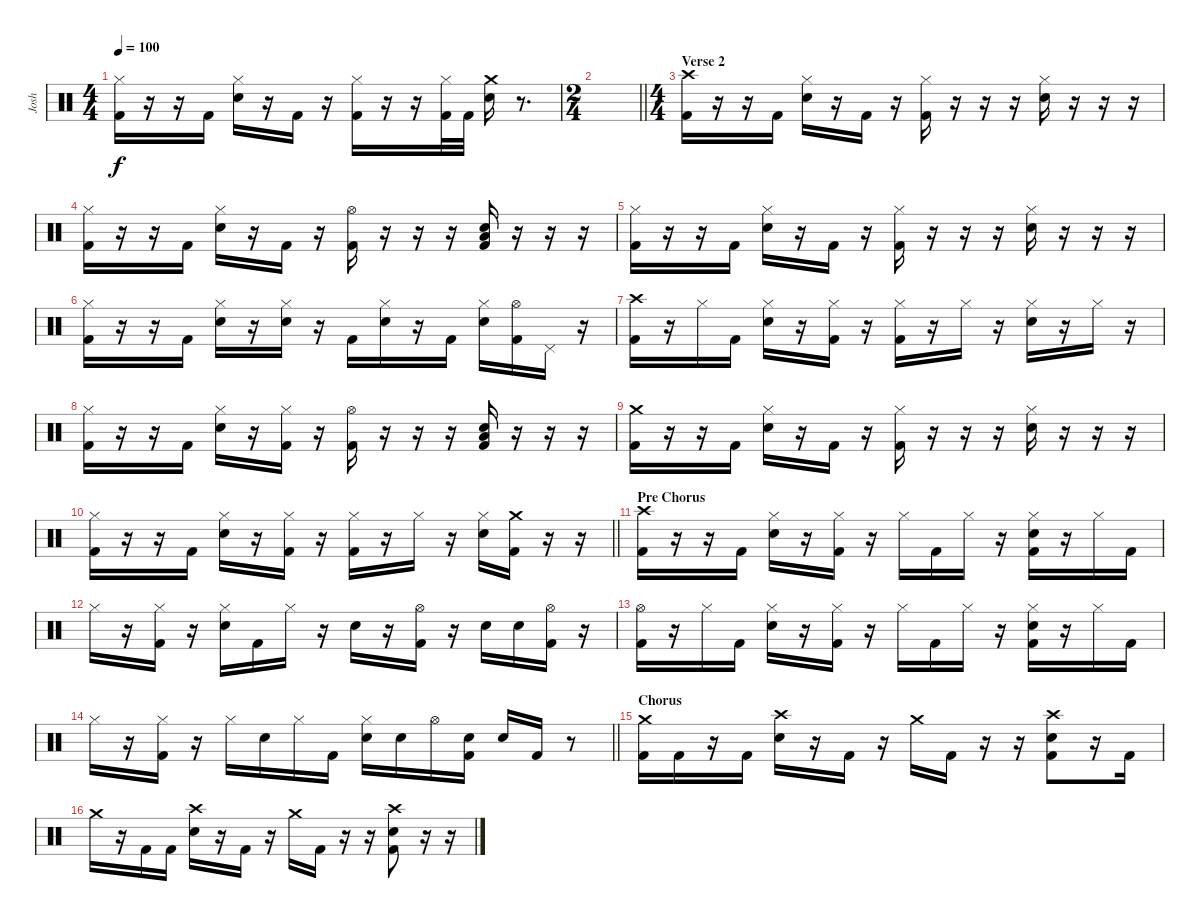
\track ("Josh" "Josh") {instrument percussion}
\staff {score}
\articulation defaults
\ts (4 4)
\tempo 100
\clef neutral
\ks c
("Hi-Hat (closed)" "Kick (hit) 2").16{dy f} r.16 r.16 "Kick (hit) 2".16 ("Hi-Hat (closed)" "Snare (hit) 2").16 r.16 "Kick (hit) 2".16 r.16 ("Hi-Hat (closed)" "Kick (hit) 2").16 r.16 r.16 ("Hi-Hat (closed)" "Kick (hit) 2").32 "Kick (hit) 2".32 ("Crash medium (hit)" "Snare (hit) 2").16 r.8{d} |
\ts (2 4)
\barLineRight lightlight
|
\ts (4 4)
\section ("" "Verse 2")
("Crash high (hit)" "Kick (hit) 2").16 r.16 r.16 "Kick (hit) 2".16 ("Hi-Hat (closed)" "Snare (hit) 2").16 r.16 "Kick (hit) 2".16 r.16 ("Hi-Hat (closed)" "Kick (hit) 2").16 r.16 r.16 r.16 ("Hi-Hat (closed)" "Snare (hit) 2").16 r.16 r.16 r.16 |
("Hi-Hat (closed)" "Kick (hit) 2").16 r.16 r.16 "Kick (hit) 2".16 ("Hi-Hat (closed)" "Snare (hit) 2").16 r.16 "Kick (hit) 2".16 r.16 ("Hi-Hat (open)" "Kick (hit) 2").16 r.16 r.16 r.16 ("Snare (hit) 2" "Low Floor Tom (hit)" "Kick (hit) 2").16 r.16 r.16 r.16 |
("Hi-Hat (closed)" "Kick (hit) 2").16 r.16 r.16 "Kick (hit) 2".16 ("Hi-Hat (closed)" "Snare (hit) 2").16 r.16 "Kick (hit) 2".16 r.16 ("Hi-Hat (closed)" "Kick (hit) 2").16 r.16 r.16 r.16 ("Hi-Hat (closed)" "Snare (hit) 2").16 r.16 r.16 r.16 |
("Hi-Hat (closed)" "Kick (hit) 2").16 r.16 r.16 "Kick (hit) 2".16 ("Hi-Hat (closed)" "Snare (hit) 2").16 r.16 ("Hi-Hat (closed)" "Snare (hit) 2").16 r.16 "Kick (hit) 2".16 ("Hi-Hat (closed)" "Snare (hit) 2").16 r.16 "Kick (hit) 2".16 ("Hi-Hat (closed)" "Snare (hit) 2").16 ("Hi-Hat (open)" "Kick (hit) 2").16 "Pedal Hi-Hat (hit)".16 r.16 |
("Crash high (hit)" "Kick (hit) 2").16 r.16 "Hi-Hat (closed)".16 "Kick (hit) 2".16 ("Hi-Hat (closed)" "Snare (hit) 2").16 r.16 ("Hi-Hat (closed)" "Kick (hit) 2").16 r.16 ("Hi-Hat (closed)" "Kick (hit) 2").16 r.16 "Hi-Hat (closed)".16 r.16 ("Hi-Hat (closed)" "Snare (hit) 2").16 r.16 "Hi-Hat (closed)".16 r.16 |
("Hi-Hat (closed)" "Kick (hit) 2").16 r.16 r.16 "Kick (hit) 2".16 ("Hi-Hat (closed)" "Snare (hit) 2").16 r.16 ("Hi-Hat (closed)" "Kick (hit) 2").16 r.16 ("Hi-Hat (open)" "Kick (hit) 2").16 r.16 r.16 r.16 ("Snare (hit) 2" "Low Floor Tom (hit)" "Kick (hit) 2").16 r.16 r.16 r.16 |
("Crash medium (hit)" "Kick (hit) 2").16 r.16 r.16 "Kick (hit) 2".16 ("Hi-Hat (closed)" "Snare (hit) 2").16 r.16 "Kick (hit) 2".16 r.16 ("Hi-Hat (closed)" "Kick (hit) 2").16 r.16 r.16 r.16 ("Hi-Hat (closed)" "Snare (hit) 2").16 r.16 r.16 r.16 |
\barLineRight lightlight
("Hi-Hat (closed)" "Kick (hit) 2").16 r.16 r.16 "Kick (hit) 2".16 ("Hi-Hat (closed)" "Snare (hit) 2").16 r.16 ("Hi-Hat (closed)" "Kick (hit) 2").16 r.16 ("Hi-Hat (closed)" "Kick (hit) 2").16 r.16 "Hi-Hat (closed)".16 r.16 ("Hi-Hat (closed)" "Snare (hit) 2").16 ("Crash medium (hit)" "Kick (hit) 2").16 r.16 r.16 |
\section ("" "Pre Chorus")
("Crash high (hit)" "Kick (hit) 2").16 r.16 r.16 "Kick (hit) 2".16 ("Hi-Hat (closed)" "Snare (hit) 2").16 r.16 ("Hi-Hat (closed)" "Kick (hit) 2").16 r.16 "Hi-Hat (closed)".16 "Kick (hit) 2".16 "Hi-Hat (closed)".16 r.16 ("Hi-Hat (closed)" "Snare (hit) 2" "Kick (hit) 2").16 r.16 "Hi-Hat (closed)".16 "Kick (hit) 2".16 |
"Hi-Hat (closed)".16 r.16 ("Hi-Hat (closed)" "Kick (hit) 2").16 r.16 ("Hi-Hat (closed)" "Snare (hit) 2").16 "Kick (hit) 2".16 "Hi-Hat (closed)".16 r.16 "Snare (hit) 2".16 r.16 ("Hi-Hat (open)" "Kick (hit) 2").16 r.16 "Snare (hit) 2".16 "Snare (hit) 2".16 ("Hi-Hat (open)" "Kick (hit) 2").16 r.16 |
("Hi-Hat (open)" "Kick (hit) 2").16 r.16 "Hi-Hat (closed)".16 "Kick (hit) 2".16 ("Hi-Hat (closed)" "Snare (hit) 2").16 r.16 ("Hi-Hat (closed)" "Kick (hit) 2").16 r.16 "Hi-Hat (closed)".16 "Kick (hit) 2".16 "Hi-Hat (closed)".16 r.16 ("Hi-Hat (closed)" "Snare (hit) 2" "Kick (hit) 2").16 r.16 "Hi-Hat (closed)".16 "Kick (hit) 2".16 |
\barLineRight lightlight "Hi-Hat (closed)".16
r.16 ("Hi-Hat (closed)" "Kick (hit) 2").16 r.16 "Hi-Hat (closed)".16 "Snare (hit) 2".16 "Hi-Hat (closed)".16 "Kick (hit) 2".16 ("Hi-Hat (closed)" "Snare (hit) 2").16 "Snare (hit) 2".16 "Hi-Hat (open)".16 ("Snare (hit) 2" "Kick (hit) 2").16 "Snare (hit) 2".16 "Kick (hit) 2".16 r.8 |
\section ("" "Chorus")
("Crash medium (hit)" "Kick (hit) 2").16 "Kick (hit) 2".16 r.16 "Kick (hit) 2".16 ("Crash high (hit)" "Snare (hit) 2").16 r.16 "Kick (hit) 2".16 r.16 "Crash medium (hit)".16 "Kick (hit) 2".16 r.16 r.16 ("Crash high (hit)" "Snare (hit) 2" "Kick (hit) 2").8 r.16 "Kick (hit) 2".16 |
"Crash medium (hit)".16 r.16 "Kick (hit) 2".16 "Kick (hit) 2".16 ("Crash high (hit)" "Snare (hit) 2").16 r.16 "Kick (hit) 2".16 r.16 "Crash medium (hit)".16 "Kick (hit) 2".16 r.16 r.16 ("Crash high (hit)" "Snare (hit) 2" "Kick (hit) 2").8 r.16 r.16
